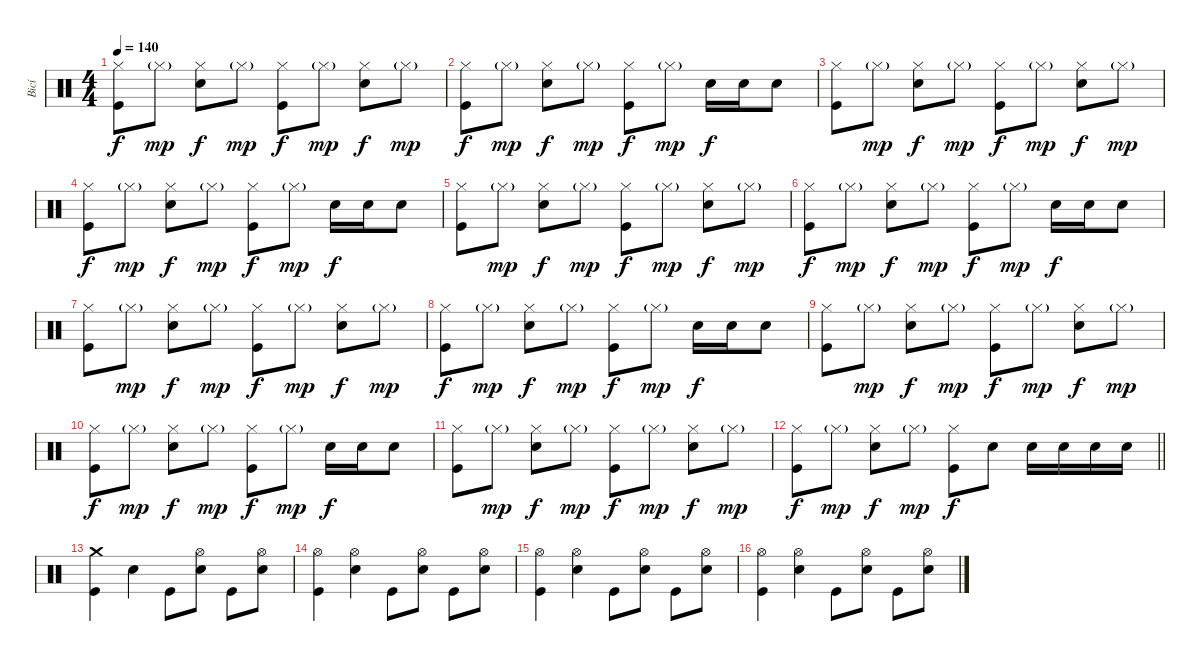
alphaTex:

\track ("Bicí" "Bicí") {instrument percussion}
\staff {score}
\articulation defaults
\ts (4 4)
\tempo 140
\clef neutral
\ks c
("Hi-Hat (closed)" "Kick (hit)").8{dy f} "Hi-Hat (closed)"{g}.8{dy mp} ("Hi-Hat (closed)" "Electric Snare (hit)").8{dy f} "Hi-Hat (closed)"{g}.8{dy mp} ("Hi-Hat (closed)" "Kick (hit)").8{dy f} "Hi-Hat (closed)"{g}.8{dy mp} ("Hi-Hat (closed)" "Electric Snare (hit)").8{dy f} "Hi-Hat (closed)"{g}.8{dy mp} |
("Hi-Hat (closed)" "Kick (hit)").8{dy f} "Hi-Hat (closed)"{g}.8{dy mp} ("Hi-Hat (closed)" "Electric Snare (hit)").8{dy f} "Hi-Hat (closed)"{g}.8{dy mp} ("Hi-Hat (closed)" "Kick (hit)").8{dy f} "Hi-Hat (closed)"{g}.8{dy mp} "Electric Snare (hit)".16{dy f} "Electric Snare (hit)".16 "Electric Snare (hit)".8 |
("Hi-Hat (closed)" "Kick (hit)").8 "Hi-Hat (closed)"{g}.8{dy mp} ("Hi-Hat (closed)" "Electric Snare (hit)").8{dy f} "Hi-Hat (closed)"{g}.8{dy mp} ("Hi-Hat (closed)" "Kick (hit)").8{dy f} "Hi-Hat (closed)"{g}.8{dy mp} ("Hi-Hat (closed)" "Electric Snare (hit)").8{dy f} "Hi-Hat (closed)"{g}.8{dy mp} |
("Hi-Hat (closed)" "Kick (hit)").8{dy f} "Hi-Hat (closed)"{g}.8{dy mp} ("Hi-Hat (closed)" "Electric Snare (hit)").8{dy f} "Hi-Hat (closed)"{g}.8{dy mp} ("Hi-Hat (closed)" "Kick (hit)").8{dy f} "Hi-Hat (closed)"{g}.8{dy mp} "Electric Snare (hit)".16{dy f} "Electric Snare (hit)".16 "Electric Snare (hit)".8 |
("Hi-Hat (closed)" "Kick (hit)").8 "Hi-Hat (closed)"{g}.8{dy mp} ("Hi-Hat (closed)" "Electric Snare (hit)").8{dy f} "Hi-Hat (closed)"{g}.8{dy mp} ("Hi-Hat (closed)" "Kick (hit)").8{dy f} "Hi-Hat (closed)"{g}.8{dy mp} ("Hi-Hat (closed)" "Electric Snare (hit)").8{dy f} "Hi-Hat (closed)"{g}.8{dy mp} |
("Hi-Hat (closed)" "Kick (hit)").8{dy f} "Hi-Hat (closed)"{g}.8{dy mp} ("Hi-Hat (closed)" "Electric Snare (hit)").8{dy f} "Hi-Hat (closed)"{g}.8{dy mp} ("Hi-Hat (closed)" "Kick (hit)").8{dy f} "Hi-Hat (closed)"{g}.8{dy mp} "Electric Snare (hit)".16{dy f} "Electric Snare (hit)".16 "Electric Snare (hit)".8 |
("Hi-Hat (closed)" "Kick (hit)").8 "Hi-Hat (closed)"{g}.8{dy mp} ("Hi-Hat (closed)" "Electric Snare (hit)").8{dy f} "Hi-Hat (closed)"{g}.8{dy mp} ("Hi-Hat (closed)" "Kick (hit)").8{dy f} "Hi-Hat (closed)"{g}.8{dy mp} ("Hi-Hat (closed)" "Electric Snare (hit)").8{dy f} "Hi-Hat (closed)"{g}.8{dy mp} |
("Hi-Hat (closed)" "Kick (hit)").8{dy f} "Hi-Hat (closed)"{g}.8{dy mp} ("Hi-Hat (closed)" "Electric Snare (hit)").8{dy f} "Hi-Hat (closed)"{g}.8{dy mp} ("Hi-Hat (closed)" "Kick (hit)").8{dy f} "Hi-Hat (closed)"{g}.8{dy mp} "Electric Snare (hit)".16{dy f} "Electric Snare (hit)".16 "Electric Snare (hit)".8 |
("Hi-Hat (closed)" "Kick (hit)").8 "Hi-Hat (closed)"{g}.8{dy mp} ("Hi-Hat (closed)" "Electric Snare (hit)").8{dy f} "Hi-Hat (closed)"{g}.8{dy mp} ("Hi-Hat (closed)" "Kick (hit)").8{dy f} "Hi-Hat (closed)"{g}.8{dy mp} ("Hi-Hat (closed)" "Electric Snare (hit)").8{dy f} "Hi-Hat (closed)"{g}.8{dy mp} |
("Hi-Hat (closed)" "Kick (hit)").8{dy f} "Hi-Hat (closed)"{g}.8{dy mp} ("Hi-Hat (closed)" "Electric Snare (hit)").8{dy f} "Hi-Hat (closed)"{g}.8{dy mp} ("Hi-Hat (closed)" "Kick (hit)").8{dy f} "Hi-Hat (closed)"{g}.8{dy mp} "Electric Snare (hit)".16{dy f} "Electric Snare (hit)".16 "Electric Snare (hit)".8 |
("Hi-Hat (closed)" "Kick (hit)").8 "Hi-Hat (closed)"{g}.8{dy mp} ("Hi-Hat (closed)" "Electric Snare (hit)").8{dy f} "Hi-Hat (closed)"{g}.8{dy mp} ("Hi-Hat (closed)" "Kick (hit)").8{dy f} "Hi-Hat (closed)"{g}.8{dy mp} ("Hi-Hat (closed)" "Electric Snare (hit)").8{dy f} "Hi-Hat (closed)"{g}.8{dy mp} |
\barLineRight lightlight
("Hi-Hat (closed)" "Kick (hit)").8{dy f} "Hi-Hat (closed)"{g}.8{dy mp} ("Hi-Hat (closed)" "Electric Snare (hit)").8{dy f} "Hi-Hat (closed)"{g}.8{dy mp} ("Hi-Hat (closed)" "Kick (hit)").8{dy f} "Electric Snare (hit)".8 "Electric Snare (hit)".16 "Electric Snare (hit)".16 "Electric Snare (hit)".16 "Electric Snare (hit)".16 |
\section ("" "")
("Crash medium (hit)" "Kick (hit)").4 "Electric Snare (hit)".4 "Kick (hit)".8 ("Hi-Hat (open)" "Electric Snare (hit)").8 "Kick (hit)".8 ("Hi-Hat (open)" "Electric Snare (hit)").8 |
("Hi-Hat (open)" "Kick (hit)").4 ("Hi-Hat (open)" "Electric Snare (hit)").4 "Kick (hit)".8 ("Hi-Hat (open)" "Electric Snare (hit)").8 "Kick (hit)".8 ("Hi-Hat (open)" "Electric Snare (hit)").8 |
("Hi-Hat (open)" "Kick (hit)").4 ("Hi-Hat (open)" "Electric Snare (hit)").4 "Kick (hit)".8 ("Hi-Hat (open)" "Electric Snare (hit)").8 "Kick (hit)".8 ("Hi-Hat (open)" "Electric Snare (hit)").8 |
("Hi-Hat (open)" "Kick (hit)").4 ("Hi-Hat (open)" "Electric Snare (hit)").4 "Kick (hit)".8 ("Hi-Hat (open)" "Electric Snare (hit)").8 "Kick (hit)".8 ("Hi-Hat (open)" "Electric Snare (hit)").8
